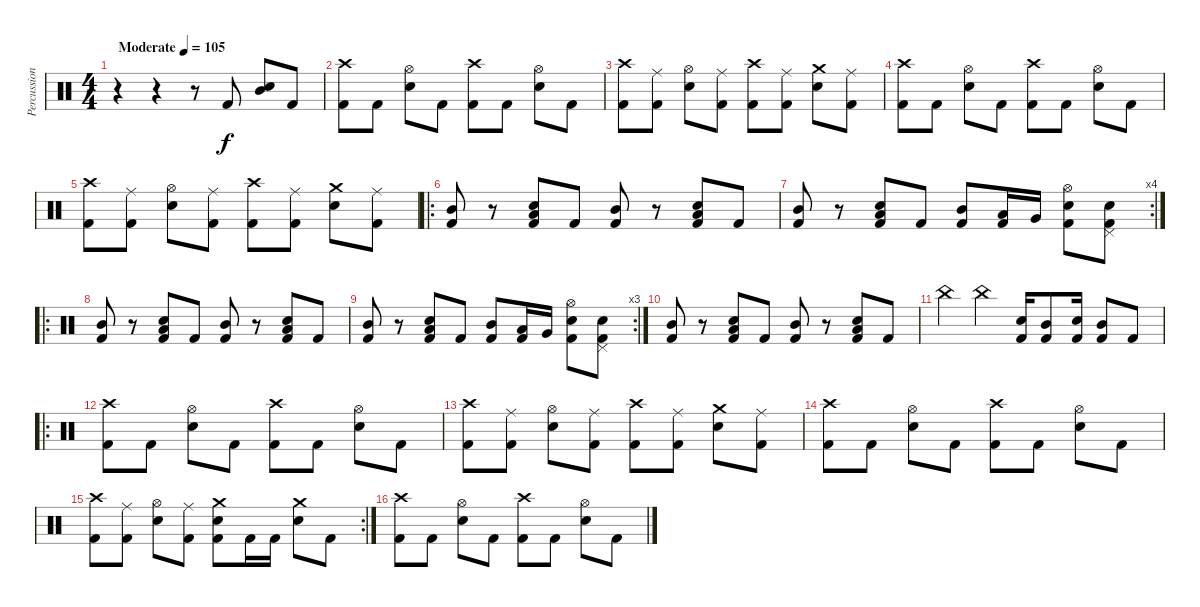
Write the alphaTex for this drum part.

\track ("Percussion" "Percussion") {instrument percussion}
\staff {score}
\articulation defaults
\ts (4 4)
\tempo (105 "Moderate")
\clef neutral
\ks c
r.4{dy f} r.4 r.8 "Kick (hit) 2".8 ("Electric Snare (hit)" "Mid Tom (hit)").8 "Kick (hit) 2".8 |
("Kick (hit) 2" "Crash high (hit)").8 "Kick (hit) 2".8 ("Electric Snare (hit)" "Hi-Hat (open)").8 "Kick (hit) 2".8 ("Kick (hit) 2" "Crash high (hit)").8 "Kick (hit) 2".8 ("Electric Snare (hit)" "Hi-Hat (open)").8 "Kick (hit) 2".8 |
("Kick (hit) 2" "Crash high (hit)").8 ("Kick (hit) 2" "Ride (middle)").8 ("Electric Snare (hit)" "Hi-Hat (open)").8 ("Kick (hit) 2" "Ride (middle)").8 ("Kick (hit) 2" "Crash high (hit)").8 ("Kick (hit) 2" "Ride (middle)").8 ("Electric Snare (hit)" "Crash medium (hit)").8 ("Kick (hit) 2" "Ride (middle)").8 |
("Kick (hit) 2" "Crash high (hit)").8 "Kick (hit) 2".8 ("Electric Snare (hit)" "Hi-Hat (open)").8 "Kick (hit) 2".8 ("Kick (hit) 2" "Crash high (hit)").8 "Kick (hit) 2".8 ("Electric Snare (hit)" "Hi-Hat (open)").8 "Kick (hit) 2".8 |
("Kick (hit) 2" "Crash high (hit)").8 ("Kick (hit) 2" "Ride (middle)").8 ("Electric Snare (hit)" "Hi-Hat (open)").8 ("Kick (hit) 2" "Ride (middle)").8 ("Kick (hit) 2" "Crash high (hit)").8 ("Kick (hit) 2" "Ride (middle)").8 ("Electric Snare (hit)" "Crash medium (hit)").8 ("Kick (hit) 2" "Ride (middle)").8 |
\ro
("Kick (hit) 2" "Mid Tom (hit)").8 r.8 ("Kick (hit) 2" "Low Tom (hit)" "Electric Snare (hit)").8 "Kick (hit) 2".8 ("Kick (hit) 2" "Mid Tom (hit)").8 r.8 ("Kick (hit) 2" "Low Tom (hit)" "Electric Snare (hit)").8 "Kick (hit) 2".8 |
\rc 4
("Kick (hit) 2" "Mid Tom (hit)").8 r.8 ("Kick (hit) 2" "Low Tom (hit)" "Electric Snare (hit)").8 "Kick (hit) 2".8 ("Kick (hit) 2" "Mid Tom (hit)").8 ("Kick (hit) 2" "Low Tom (hit)").16 "Very Low Tom (hit)".16 ("Kick (hit) 2" "Electric Snare (hit)" "Hi-Hat (open)").8 ("Kick (hit) 2" "Electric Snare (hit)" "Pedal Hi-Hat (hit)").8 |
\ro
("Kick (hit) 2" "Mid Tom (hit)").8 r.8 ("Kick (hit) 2" "Low Tom (hit)" "Electric Snare (hit)").8 "Kick (hit) 2".8 ("Kick (hit) 2" "Mid Tom (hit)").8 r.8 ("Kick (hit) 2" "Low Tom (hit)" "Electric Snare (hit)").8 "Kick (hit) 2".8 |
\rc 3
("Kick (hit) 2" "Mid Tom (hit)").8 r.8 ("Kick (hit) 2" "Low Tom (hit)" "Electric Snare (hit)").8 "Kick (hit) 2".8 ("Kick (hit) 2" "Mid Tom (hit)").8 ("Kick (hit) 2" "Low Tom (hit)").16 "Very Low Tom (hit)".16 ("Kick (hit) 2" "Electric Snare (hit)" "Hi-Hat (open)").8 ("Kick (hit) 2" "Electric Snare (hit)" "Pedal Hi-Hat (hit)").8 |
("Kick (hit) 2" "Mid Tom (hit)").8 r.8 ("Kick (hit) 2" "Low Tom (hit)" "Electric Snare (hit)").8 "Kick (hit) 2".8 ("Kick (hit) 2" "Mid Tom (hit)").8 r.8 ("Kick (hit) 2" "Low Tom (hit)" "Electric Snare (hit)").8 "Kick (hit) 2".8 |
"China (hit)".4 "China (hit)".4 ("Kick (hit) 2" "Electric Snare (hit)").16 ("Kick (hit) 2" "Mid Tom (hit)").8 ("Kick (hit) 2" "Electric Snare (hit)").16 ("Kick (hit) 2" "Mid Tom (hit)").8 "Kick (hit) 2".8 |
\ro
("Kick (hit) 2" "Crash high (hit)").8 "Kick (hit) 2".8 ("Electric Snare (hit)" "Hi-Hat (open)").8 "Kick (hit) 2".8 ("Kick (hit) 2" "Crash high (hit)").8 "Kick (hit) 2".8 ("Electric Snare (hit)" "Hi-Hat (open)").8 "Kick (hit) 2".8 |
("Kick (hit) 2" "Crash high (hit)").8 ("Kick (hit) 2" "Ride (middle)").8 ("Electric Snare (hit)" "Hi-Hat (open)").8 ("Kick (hit) 2" "Ride (middle)").8 ("Kick (hit) 2" "Crash high (hit)").8 ("Kick (hit) 2" "Ride (middle)").8 ("Electric Snare (hit)" "Crash medium (hit)").8 ("Kick (hit) 2" "Ride (middle)").8 |
("Kick (hit) 2" "Crash high (hit)").8 "Kick (hit) 2".8 ("Electric Snare (hit)" "Hi-Hat (open)").8 "Kick (hit) 2".8 ("Kick (hit) 2" "Crash high (hit)").8 "Kick (hit) 2".8 ("Electric Snare (hit)" "Hi-Hat (open)").8 "Kick (hit) 2".8 |
\rc 2
("Kick (hit) 2" "Crash high (hit)").8 ("Kick (hit) 2" "Ride (middle)").8 ("Electric Snare (hit)" "Hi-Hat (open)").8 ("Kick (hit) 2" "Ride (middle)").8 ("Kick (hit) 2" "Electric Snare (hit)" "Crash medium (hit)").8 "Kick (hit) 2".16 "Kick (hit) 2".16 ("Electric Snare (hit)" "Crash medium (hit)").8 "Kick (hit) 2".8 |
("Kick (hit) 2" "Crash high (hit)").8 "Kick (hit) 2".8 ("Electric Snare (hit)" "Hi-Hat (open)").8 "Kick (hit) 2".8 ("Kick (hit) 2" "Crash high (hit)").8 "Kick (hit) 2".8 ("Electric Snare (hit)" "Hi-Hat (open)").8 "Kick (hit) 2".8
